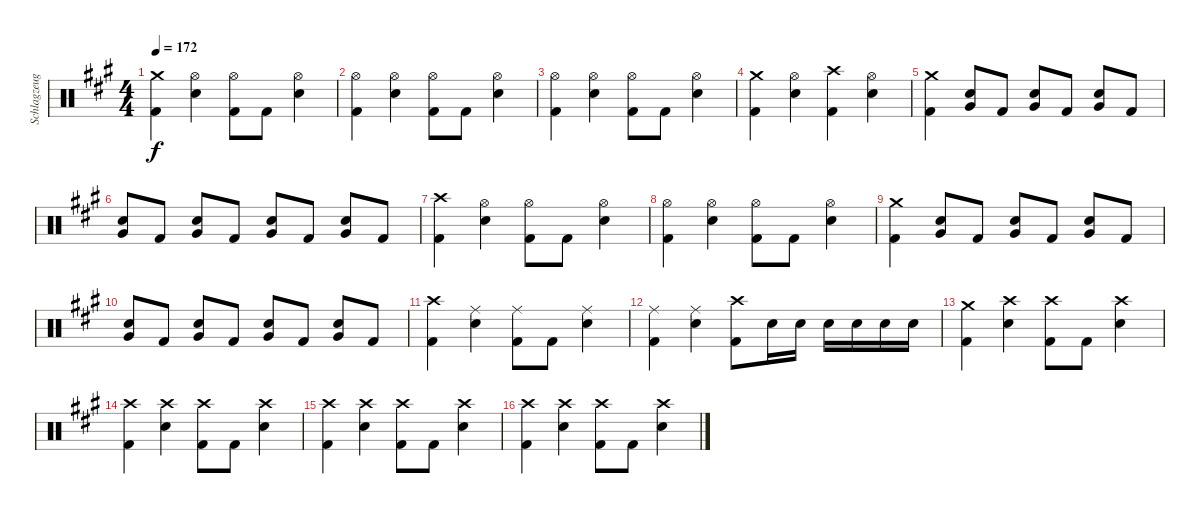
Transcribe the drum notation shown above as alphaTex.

\track ("Schlagzeug" "Schlagzeug") {instrument percussion}
\staff {score}
\articulation defaults
\ts (4 4)
\tempo 172
\clef neutral
\ks a
("Crash medium (hit)" "Kick (hit) 2").4{dy f} ("Hi-Hat (open)" "Snare (hit) 2").4 ("Hi-Hat (open)" "Kick (hit) 2").8 "Kick (hit) 2".8 ("Hi-Hat (open)" "Snare (hit) 2").4 |
("Hi-Hat (open)" "Kick (hit) 2").4 ("Hi-Hat (open)" "Snare (hit) 2").4 ("Hi-Hat (open)" "Kick (hit) 2").8 "Kick (hit) 2".8 ("Hi-Hat (open)" "Snare (hit) 2").4 |
("Hi-Hat (open)" "Kick (hit) 2").4 ("Hi-Hat (open)" "Snare (hit) 2").4 ("Hi-Hat (open)" "Kick (hit) 2").8 "Kick (hit) 2".8 ("Hi-Hat (open)" "Snare (hit) 2").4 |
("Crash medium (hit)" "Kick (hit) 2").4 ("Hi-Hat (open)" "Snare (hit) 2").4 ("Crash high (hit)" "Kick (hit) 2").4 ("Hi-Hat (open)" "Snare (hit) 2").4 |
("Crash medium (hit)" "Kick (hit) 2").4 ("Snare (hit) 2" "Very Low Tom (hit)").8 "Kick (hit) 2".8 ("Snare (hit) 2" "Very Low Tom (hit)").8 "Kick (hit) 2".8 ("Snare (hit) 2" "Very Low Tom (hit)").8 "Kick (hit) 2".8 |
("Snare (hit) 2" "Very Low Tom (hit)").8 "Kick (hit) 2".8 ("Snare (hit) 2" "Very Low Tom (hit)").8 "Kick (hit) 2".8 ("Snare (hit) 2" "Very Low Tom (hit)").8 "Kick (hit) 2".8 ("Snare (hit) 2" "Very Low Tom (hit)").8 "Kick (hit) 2".8 |
("Crash high (hit)" "Kick (hit) 2").4 ("Hi-Hat (open)" "Snare (hit) 2").4 ("Hi-Hat (open)" "Kick (hit) 2").8 "Kick (hit) 2".8 ("Hi-Hat (open)" "Snare (hit) 2").4 |
("Hi-Hat (open)" "Kick (hit) 2").4 ("Hi-Hat (open)" "Snare (hit) 2").4 ("Hi-Hat (open)" "Kick (hit) 2").8 "Kick (hit) 2".8 ("Hi-Hat (open)" "Snare (hit) 2").4 |
("Crash medium (hit)" "Kick (hit) 2").4 ("Snare (hit) 2" "Very Low Tom (hit)").8 "Kick (hit) 2".8 ("Snare (hit) 2" "Very Low Tom (hit)").8 "Kick (hit) 2".8 ("Snare (hit) 2" "Very Low Tom (hit)").8 "Kick (hit) 2".8 |
("Snare (hit) 2" "Very Low Tom (hit)").8 "Kick (hit) 2".8 ("Snare (hit) 2" "Very Low Tom (hit)").8 "Kick (hit) 2".8 ("Snare (hit) 2" "Very Low Tom (hit)").8 "Kick (hit) 2".8 ("Snare (hit) 2" "Very Low Tom (hit)").8 "Kick (hit) 2".8 |
("Crash high (hit)" "Kick (hit) 2").4 ("Ride (middle)" "Snare (hit) 2").4 ("Ride (middle)" "Kick (hit) 2").8 "Kick (hit) 2".8 ("Ride (middle)" "Snare (hit) 2").4 |
("Ride (middle)" "Kick (hit) 2").4 ("Ride (middle)" "Snare (hit) 2").4 ("Crash high (hit)" "Kick (hit) 2").8 "Snare (hit) 2".16 "Snare (hit) 2".16 "Snare (hit) 2".16 "Snare (hit) 2".16 "Snare (hit) 2".16 "Snare (hit) 2".16 |
("Crash medium (hit)" "Kick (hit) 2").4 ("Crash high (hit)" "Snare (hit) 2").4 ("Crash high (hit)" "Kick (hit) 2").8 "Kick (hit) 2".8 ("Crash high (hit)" "Snare (hit) 2").4 |
("Crash high (hit)" "Kick (hit) 2").4 ("Crash high (hit)" "Snare (hit) 2").4 ("Crash high (hit)" "Kick (hit) 2").8 "Kick (hit) 2".8 ("Crash high (hit)" "Snare (hit) 2").4 |
("Crash high (hit)" "Kick (hit) 2").4 ("Crash high (hit)" "Snare (hit) 2").4 ("Crash high (hit)" "Kick (hit) 2").8 "Kick (hit) 2".8 ("Crash high (hit)" "Snare (hit) 2").4 |
("Crash high (hit)" "Kick (hit) 2").4 ("Crash high (hit)" "Snare (hit) 2").4 ("Crash high (hit)" "Kick (hit) 2").8 "Kick (hit) 2".8 ("Crash high (hit)" "Snare (hit) 2").4
